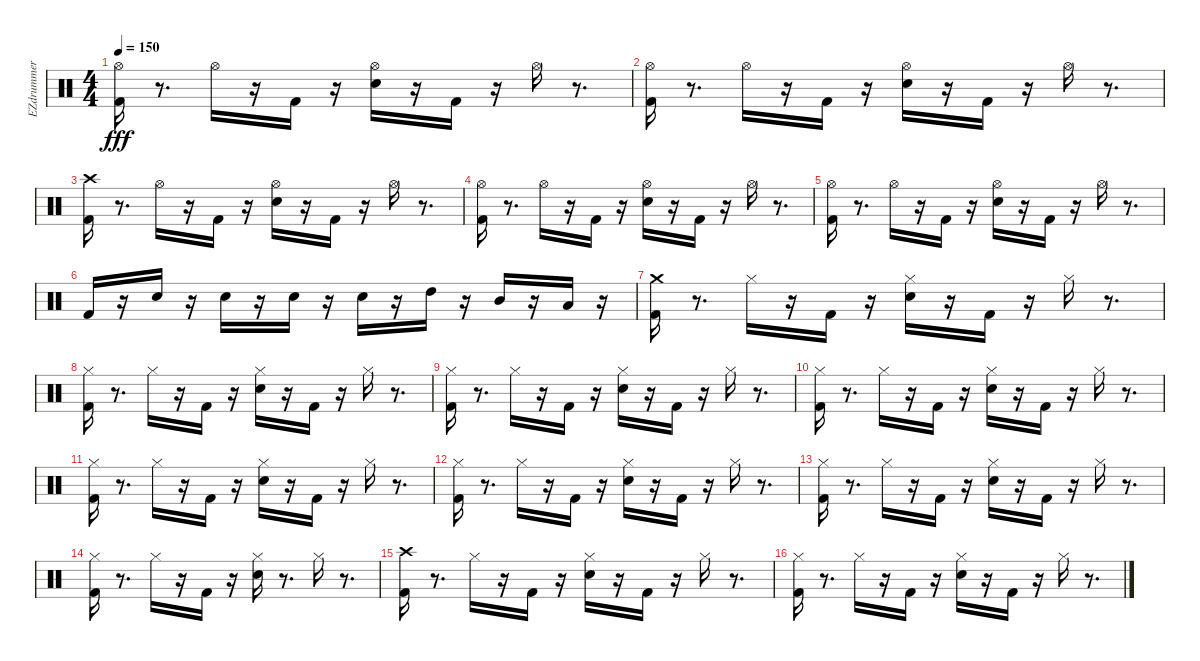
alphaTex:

\track ("EZdrummer 01" "EZdrummer ") {instrument percussion}
\staff {score}
\articulation defaults
\ts (4 4)
\tempo 150
\clef neutral
\ks c
("Kick (hit) 2" "Hi-Hat (open)").16{dy fff} r.8{d} "Hi-Hat (open)".16 r.16 "Kick (hit) 2".16 r.16 ("Electric Snare (hit)" "Hi-Hat (open)").16 r.16 "Kick (hit) 2".16 r.16 "Hi-Hat (open)".16 r.8{d} |
("Kick (hit) 2" "Hi-Hat (open)").16 r.8{d} "Hi-Hat (open)".16 r.16 "Kick (hit) 2".16 r.16 ("Electric Snare (hit)" "Hi-Hat (open)").16 r.16 "Kick (hit) 2".16 r.16 "Hi-Hat (open)".16 r.8{d} |
("Kick (hit) 2" "Crash high (hit)").16 r.8{d} "Hi-Hat (open)".16 r.16 "Kick (hit) 2".16 r.16 ("Electric Snare (hit)" "Hi-Hat (open)").16 r.16 "Kick (hit) 2".16 r.16 "Hi-Hat (open)".16 r.8{d} |
("Kick (hit) 2" "Hi-Hat (open)").16 r.8{d} "Hi-Hat (open)".16 r.16 "Kick (hit) 2".16 r.16 ("Electric Snare (hit)" "Hi-Hat (open)").16 r.16 "Kick (hit) 2".16 r.16 "Hi-Hat (open)".16 r.8{d} |
("Kick (hit) 2" "Hi-Hat (open)").16 r.8{d} "Hi-Hat (open)".16 r.16 "Kick (hit) 2".16 r.16 ("Electric Snare (hit)" "Hi-Hat (open)").16 r.16 "Kick (hit) 2".16 r.16 "Hi-Hat (open)".16 r.8{d} |
"Kick (hit) 2".16 r.16 "Electric Snare (hit)".16 r.16 "Electric Snare (hit)".16 r.16 "Electric Snare (hit)".16 r.16 "Electric Snare (hit)".16 r.16 "High Tom (hit)".16 r.16 "Mid Tom (hit)".16 r.16 "Low Tom (hit)".16 r.16 |
("Kick (hit) 2" "Crash medium (hit)").16 r.8{d} "Hi-Hat (closed)".16 r.16 "Kick (hit) 2".16 r.16 ("Electric Snare (hit)" "Hi-Hat (closed)").16 r.16 "Kick (hit) 2".16 r.16 "Hi-Hat (closed)".16 r.8{d} |
("Kick (hit) 2" "Hi-Hat (closed)").16 r.8{d} "Hi-Hat (closed)".16 r.16 "Kick (hit) 2".16 r.16 ("Electric Snare (hit)" "Hi-Hat (closed)").16 r.16 "Kick (hit) 2".16 r.16 "Hi-Hat (closed)".16 r.8{d} |
("Kick (hit) 2" "Hi-Hat (closed)").16 r.8{d} "Hi-Hat (closed)".16 r.16 "Kick (hit) 2".16 r.16 ("Electric Snare (hit)" "Hi-Hat (closed)").16 r.16 "Kick (hit) 2".16 r.16 "Hi-Hat (closed)".16 r.8{d} |
("Kick (hit) 2" "Hi-Hat (closed)").16 r.8{d} "Hi-Hat (closed)".16 r.16 "Kick (hit) 2".16 r.16 ("Electric Snare (hit)" "Hi-Hat (closed)").16 r.16 "Kick (hit) 2".16 r.16 "Hi-Hat (closed)".16 r.8{d} |
("Kick (hit) 2" "Hi-Hat (closed)").16 r.8{d} "Hi-Hat (closed)".16 r.16 "Kick (hit) 2".16 r.16 ("Electric Snare (hit)" "Hi-Hat (closed)").16 r.16 "Kick (hit) 2".16 r.16 "Hi-Hat (closed)".16 r.8{d} |
("Kick (hit) 2" "Hi-Hat (closed)").16 r.8{d} "Hi-Hat (closed)".16 r.16 "Kick (hit) 2".16 r.16 ("Electric Snare (hit)" "Hi-Hat (closed)").16 r.16 "Kick (hit) 2".16 r.16 "Hi-Hat (closed)".16 r.8{d} |
("Kick (hit) 2" "Hi-Hat (closed)").16 r.8{d} "Hi-Hat (closed)".16 r.16 "Kick (hit) 2".16 r.16 ("Electric Snare (hit)" "Hi-Hat (closed)").16 r.16 "Kick (hit) 2".16 r.16 "Hi-Hat (closed)".16 r.8{d} |
("Kick (hit) 2" "Hi-Hat (closed)").16 r.8{d} "Hi-Hat (closed)".16 r.16 "Kick (hit) 2".16 r.16 ("Electric Snare (hit)" "Hi-Hat (closed)").16 r.8{d} "Hi-Hat (closed)".16 r.8{d} |
("Kick (hit) 2" "Crash high (hit)").16 r.8{d} "Hi-Hat (closed)".16 r.16 "Kick (hit) 2".16 r.16 ("Electric Snare (hit)" "Hi-Hat (closed)").16 r.16 "Kick (hit) 2".16 r.16 "Hi-Hat (closed)".16 r.8{d} |
("Kick (hit) 2" "Hi-Hat (closed)").16 r.8{d} "Hi-Hat (closed)".16 r.16 "Kick (hit) 2".16 r.16 ("Electric Snare (hit)" "Hi-Hat (closed)").16 r.16 "Kick (hit) 2".16 r.16 "Hi-Hat (closed)".16 r.8{d}
